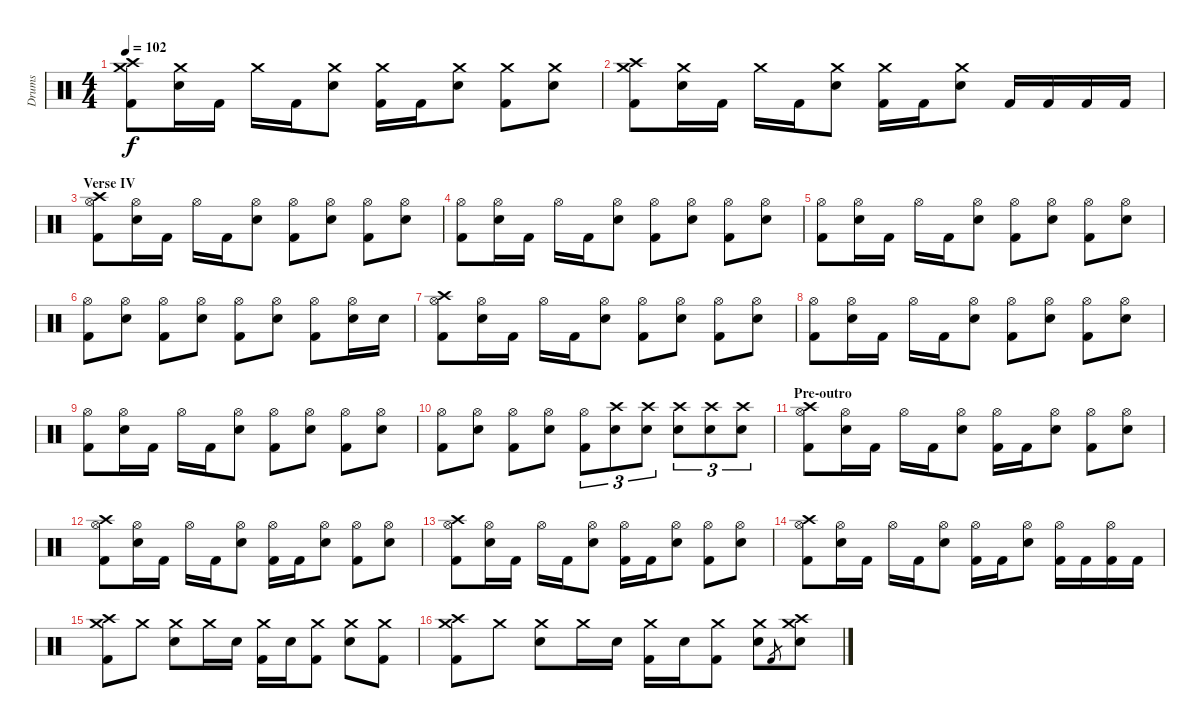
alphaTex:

\track ("Drums" "Drums") {instrument percussion}
\staff {score}
\articulation defaults
\ts (4 4)
\tempo 102
\clef neutral
\ks c
("Crash medium (hit)" "Kick (hit) 2" "Crash high (hit)").8{dy f} ("Crash medium (hit)" "Electric Snare (hit)").16 "Kick (hit) 2".16 "Crash medium (hit)".16 "Kick (hit) 2".16 ("Crash medium (hit)" "Electric Snare (hit)").8 ("Crash medium (hit)" "Kick (hit) 2").16 "Kick (hit) 2".16 ("Crash medium (hit)" "Electric Snare (hit)").8 ("Crash medium (hit)" "Kick (hit) 2").8 ("Crash medium (hit)" "Electric Snare (hit)").8 |
("Crash medium (hit)" "Kick (hit) 2" "Crash high (hit)").8 ("Crash medium (hit)" "Electric Snare (hit)").16 "Kick (hit) 2".16 "Crash medium (hit)".16 "Kick (hit) 2".16 ("Crash medium (hit)" "Electric Snare (hit)").8 ("Crash medium (hit)" "Kick (hit) 2").16 "Kick (hit) 2".16 ("Crash medium (hit)" "Electric Snare (hit)").8 "Kick (hit) 2".16 "Kick (hit) 2".16 "Kick (hit) 2".16 "Kick (hit) 2".16 |
\section ("" "Verse IV")
("Hi-Hat (open)" "Kick (hit) 2" "Crash high (hit)").8 ("Hi-Hat (open)" "Electric Snare (hit)").16 "Kick (hit) 2".16 "Hi-Hat (open)".16 "Kick (hit) 2".16 ("Hi-Hat (open)" "Electric Snare (hit)").8 ("Hi-Hat (open)" "Kick (hit) 2").8 ("Hi-Hat (open)" "Electric Snare (hit)").8 ("Hi-Hat (open)" "Kick (hit) 2").8 ("Hi-Hat (open)" "Electric Snare (hit)").8 |
("Hi-Hat (open)" "Kick (hit) 2").8 ("Hi-Hat (open)" "Electric Snare (hit)").16 "Kick (hit) 2".16 "Hi-Hat (open)".16 "Kick (hit) 2".16 ("Hi-Hat (open)" "Electric Snare (hit)").8 ("Hi-Hat (open)" "Kick (hit) 2").8 ("Hi-Hat (open)" "Electric Snare (hit)").8 ("Hi-Hat (open)" "Kick (hit) 2").8 ("Hi-Hat (open)" "Electric Snare (hit)").8 |
("Hi-Hat (open)" "Kick (hit) 2").8 ("Hi-Hat (open)" "Electric Snare (hit)").16 "Kick (hit) 2".16 "Hi-Hat (open)".16 "Kick (hit) 2".16 ("Hi-Hat (open)" "Electric Snare (hit)").8 ("Hi-Hat (open)" "Kick (hit) 2").8 ("Hi-Hat (open)" "Electric Snare (hit)").8 ("Hi-Hat (open)" "Kick (hit) 2").8 ("Hi-Hat (open)" "Electric Snare (hit)").8 |
("Hi-Hat (open)" "Kick (hit) 2").8 ("Hi-Hat (open)" "Electric Snare (hit)").8 ("Hi-Hat (open)" "Kick (hit) 2").8 ("Hi-Hat (open)" "Electric Snare (hit)").8 ("Hi-Hat (open)" "Kick (hit) 2").8 ("Hi-Hat (open)" "Electric Snare (hit)").8 ("Hi-Hat (open)" "Kick (hit) 2").8 ("Hi-Hat (open)" "Electric Snare (hit)").16 "Electric Snare (hit)".16 |
("Hi-Hat (open)" "Kick (hit) 2" "Crash high (hit)").8 ("Hi-Hat (open)" "Electric Snare (hit)").16 "Kick (hit) 2".16 "Hi-Hat (open)".16 "Kick (hit) 2".16 ("Hi-Hat (open)" "Electric Snare (hit)").8 ("Hi-Hat (open)" "Kick (hit) 2").8 ("Hi-Hat (open)" "Electric Snare (hit)").8 ("Hi-Hat (open)" "Kick (hit) 2").8 ("Hi-Hat (open)" "Electric Snare (hit)").8 |
("Hi-Hat (open)" "Kick (hit) 2").8 ("Hi-Hat (open)" "Electric Snare (hit)").16 "Kick (hit) 2".16 "Hi-Hat (open)".16 "Kick (hit) 2".16 ("Hi-Hat (open)" "Electric Snare (hit)").8 ("Hi-Hat (open)" "Kick (hit) 2").8 ("Hi-Hat (open)" "Electric Snare (hit)").8 ("Hi-Hat (open)" "Kick (hit) 2").8 ("Hi-Hat (open)" "Electric Snare (hit)").8 |
("Hi-Hat (open)" "Kick (hit) 2").8 ("Hi-Hat (open)" "Electric Snare (hit)").16 "Kick (hit) 2".16 "Hi-Hat (open)".16 "Kick (hit) 2".16 ("Hi-Hat (open)" "Electric Snare (hit)").8 ("Hi-Hat (open)" "Kick (hit) 2").8 ("Hi-Hat (open)" "Electric Snare (hit)").8 ("Hi-Hat (open)" "Kick (hit) 2").8 ("Hi-Hat (open)" "Electric Snare (hit)").8 |
("Hi-Hat (open)" "Kick (hit) 2").8 ("Hi-Hat (open)" "Electric Snare (hit)").8 ("Hi-Hat (open)" "Kick (hit) 2").8 ("Hi-Hat (open)" "Electric Snare (hit)").8 ("Hi-Hat (open)" "Kick (hit) 2").8{tu (3 2)} ("Crash high (hit)" "Electric Snare (hit)").8{tu (3 2)} ("Crash high (hit)" "Electric Snare (hit)").8{tu (3 2)} ("Crash high (hit)" "Electric Snare (hit)").8{tu (3 2)} ("Crash high (hit)" "Electric Snare (hit)").8{tu (3 2)} ("Crash high (hit)" "Electric Snare (hit)").8{tu (3 2)} |
\section ("" "Pre-outro")
("Hi-Hat (open)" "Kick (hit) 2" "Crash high (hit)").8 ("Hi-Hat (open)" "Electric Snare (hit)").16 "Kick (hit) 2".16 "Hi-Hat (open)".16 "Kick (hit) 2".16 ("Hi-Hat (open)" "Electric Snare (hit)").8 ("Hi-Hat (open)" "Kick (hit) 2").16 "Kick (hit) 2".16 ("Hi-Hat (open)" "Electric Snare (hit)").8 ("Hi-Hat (open)" "Kick (hit) 2").8 ("Hi-Hat (open)" "Electric Snare (hit)").8 |
("Hi-Hat (open)" "Kick (hit) 2" "Crash high (hit)").8 ("Hi-Hat (open)" "Electric Snare (hit)").16 "Kick (hit) 2".16 "Hi-Hat (open)".16 "Kick (hit) 2".16 ("Hi-Hat (open)" "Electric Snare (hit)").8 ("Hi-Hat (open)" "Kick (hit) 2").16 "Kick (hit) 2".16 ("Hi-Hat (open)" "Electric Snare (hit)").8 ("Hi-Hat (open)" "Kick (hit) 2").8 ("Hi-Hat (open)" "Electric Snare (hit)").8 |
("Hi-Hat (open)" "Kick (hit) 2" "Crash high (hit)").8 ("Hi-Hat (open)" "Electric Snare (hit)").16 "Kick (hit) 2".16 "Hi-Hat (open)".16 "Kick (hit) 2".16 ("Hi-Hat (open)" "Electric Snare (hit)").8 ("Hi-Hat (open)" "Kick (hit) 2").16 "Kick (hit) 2".16 ("Hi-Hat (open)" "Electric Snare (hit)").8 ("Hi-Hat (open)" "Kick (hit) 2").8 ("Hi-Hat (open)" "Electric Snare (hit)").8 |
("Hi-Hat (open)" "Kick (hit) 2" "Crash high (hit)").8 ("Hi-Hat (open)" "Electric Snare (hit)").16 "Kick (hit) 2".16 "Hi-Hat (open)".16 "Kick (hit) 2".16 ("Hi-Hat (open)" "Electric Snare (hit)").8 ("Hi-Hat (open)" "Kick (hit) 2").16 "Kick (hit) 2".16 ("Hi-Hat (open)" "Electric Snare (hit)").8 ("Hi-Hat (open)" "Kick (hit) 2").16 "Kick (hit) 2".16 ("Hi-Hat (open)" "Kick (hit) 2").16 "Kick (hit) 2".16 |
("Crash medium (hit)" "Kick (hit) 2" "Crash high (hit)").8 "Crash medium (hit)".8 ("Crash medium (hit)" "Electric Snare (hit)").8 "Crash medium (hit)".16 "Electric Snare (hit)".16 ("Crash medium (hit)" "Kick (hit) 2").16 "Electric Snare (hit)".16 ("Crash medium (hit)" "Kick (hit) 2").8 ("Crash medium (hit)" "Electric Snare (hit)").8 ("Crash medium (hit)" "Kick (hit) 2").8 |
("Crash medium (hit)" "Kick (hit) 2" "Crash high (hit)").8 "Crash medium (hit)".8 ("Crash medium (hit)" "Electric Snare (hit)").8 "Crash medium (hit)".16 "Electric Snare (hit)".16 ("Crash medium (hit)" "Kick (hit) 2").16 "Electric Snare (hit)".16 ("Crash medium (hit)" "Kick (hit) 2").8 ("Crash medium (hit)" "Electric Snare (hit)").8 "Kick (hit) 2".8{gr} ("Crash medium (hit)" "Electric Snare (hit)" "Crash high (hit)").8
